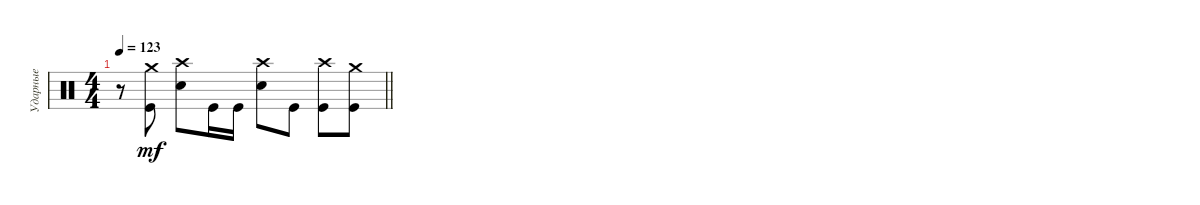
\track ("Ударные" "Ударные") {instrument percussion}
\staff {score}
\articulation defaults
\ts (4 4)
\tempo 123
\clef neutral
\barLineRight lightlight
\ks c
r.8{dy mf} ("Crash medium (hit)" "Kick (hit)").8 ("Crash high (hit)" "Electric Snare (hit)").8 "Kick (hit)".16 "Kick (hit)".16 ("Crash high (hit)" "Electric Snare (hit)").8 "Kick (hit)".8 ("Crash high (hit)" "Kick (hit)").8 ("Crash medium (hit)" "Kick (hit)").8
